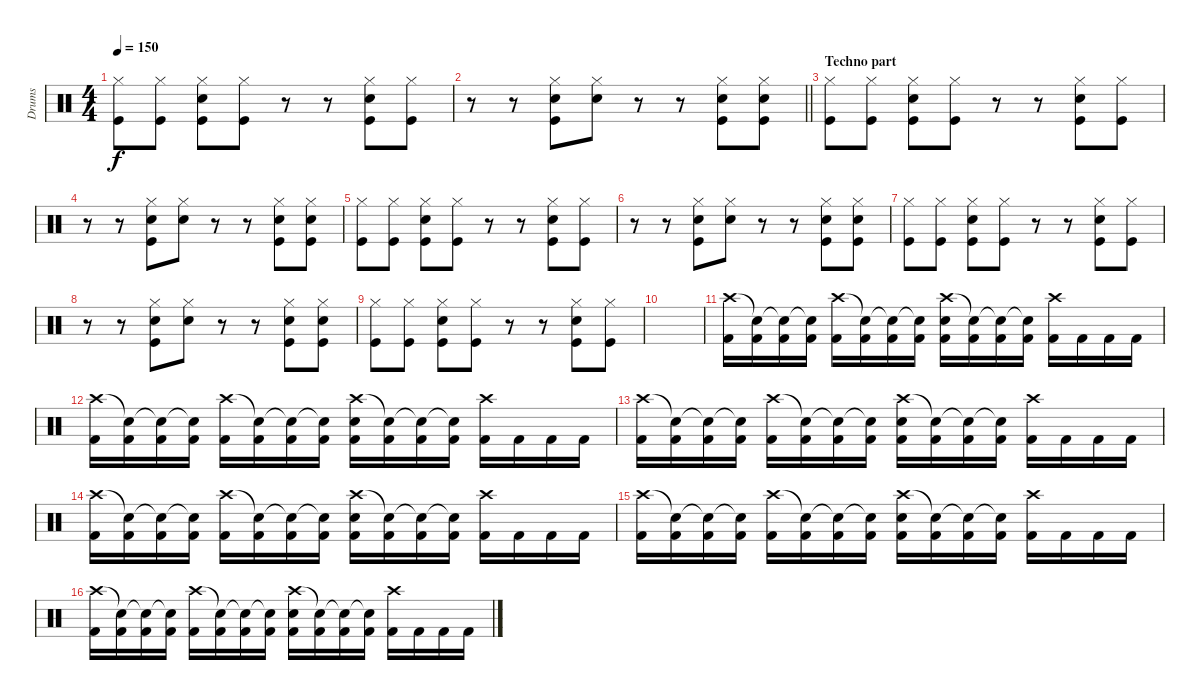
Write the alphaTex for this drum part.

\track ("Drums" "Drums") {instrument percussion}
\staff {score}
\articulation defaults
\ts (4 4)
\tempo 150
\clef neutral
\ks c
("Hi-Hat (closed)" "Kick (hit)").8{dy f} ("Hi-Hat (closed)" "Kick (hit)").8 ("Hi-Hat (closed)" "Hand Clap (hit)" "Kick (hit)").8 ("Hi-Hat (closed)" "Kick (hit)").8 r.8 r.8 ("Hi-Hat (closed)" "Hand Clap (hit)" "Kick (hit)").8 ("Hi-Hat (closed)" "Kick (hit)").8 |
\barLineRight lightlight
r.8 r.8 ("Hi-Hat (closed)" "Hand Clap (hit)" "Kick (hit)").8 ("Hi-Hat (closed)" "Hand Clap (hit)").8 r.8 r.8 ("Hi-Hat (closed)" "Hand Clap (hit)" "Kick (hit)").8 ("Hi-Hat (closed)" "Hand Clap (hit)" "Kick (hit)").8 |
\section ("" "Techno part")
("Hi-Hat (closed)" "Kick (hit)").8 ("Hi-Hat (closed)" "Kick (hit)").8 ("Hi-Hat (closed)" "Hand Clap (hit)" "Kick (hit)").8 ("Hi-Hat (closed)" "Kick (hit)").8 r.8 r.8 ("Hi-Hat (closed)" "Hand Clap (hit)" "Kick (hit)").8 ("Hi-Hat (closed)" "Kick (hit)").8 |
r.8 r.8 ("Hi-Hat (closed)" "Hand Clap (hit)" "Kick (hit)").8 ("Hi-Hat (closed)" "Hand Clap (hit)").8 r.8 r.8 ("Hi-Hat (closed)" "Hand Clap (hit)" "Kick (hit)").8 ("Hi-Hat (closed)" "Hand Clap (hit)" "Kick (hit)").8 |
("Hi-Hat (closed)" "Kick (hit)").8 ("Hi-Hat (closed)" "Kick (hit)").8 ("Hi-Hat (closed)" "Hand Clap (hit)" "Kick (hit)").8 ("Hi-Hat (closed)" "Kick (hit)").8 r.8 r.8 ("Hi-Hat (closed)" "Hand Clap (hit)" "Kick (hit)").8 ("Hi-Hat (closed)" "Kick (hit)").8 |
r.8 r.8 ("Hi-Hat (closed)" "Hand Clap (hit)" "Kick (hit)").8 ("Hi-Hat (closed)" "Hand Clap (hit)").8 r.8 r.8 ("Hi-Hat (closed)" "Hand Clap (hit)" "Kick (hit)").8 ("Hi-Hat (closed)" "Hand Clap (hit)" "Kick (hit)").8 |
("Hi-Hat (closed)" "Kick (hit)").8 ("Hi-Hat (closed)" "Kick (hit)").8 ("Hi-Hat (closed)" "Hand Clap (hit)" "Kick (hit)").8 ("Hi-Hat (closed)" "Kick (hit)").8 r.8 r.8 ("Hi-Hat (closed)" "Hand Clap (hit)" "Kick (hit)").8 ("Hi-Hat (closed)" "Kick (hit)").8 |
r.8 r.8 ("Hi-Hat (closed)" "Hand Clap (hit)" "Kick (hit)").8 ("Hi-Hat (closed)" "Hand Clap (hit)").8 r.8 r.8 ("Hi-Hat (closed)" "Hand Clap (hit)" "Kick (hit)").8 ("Hi-Hat (closed)" "Hand Clap (hit)" "Kick (hit)").8 |
("Hi-Hat (closed)" "Kick (hit)").8 ("Hi-Hat (closed)" "Kick (hit)").8 ("Hi-Hat (closed)" "Hand Clap (hit)" "Kick (hit)").8 ("Hi-Hat (closed)" "Kick (hit)").8 r.8 r.8 ("Hi-Hat (closed)" "Hand Clap (hit)" "Kick (hit)").8 ("Hi-Hat (closed)" "Kick (hit)").8 |
|
("Crash high (hit)" "Kick (hit) 2").16 ("Snare (hit)"{t} "Kick (hit) 2").16 ("Snare (hit)"{t} "Kick (hit) 2").16 ("Snare (hit)"{t} "Kick (hit) 2").16 ("Crash high (hit)" "Kick (hit) 2").16 ("Snare (hit)"{t} "Kick (hit) 2").16 ("Snare (hit)"{t} "Kick (hit) 2").16 ("Snare (hit)"{t} "Kick (hit) 2").16 ("Crash high (hit)" "Electric Snare (hit)" "Kick (hit) 2").16 ("Snare (hit)"{t} "Kick (hit) 2").16 ("Snare (hit)"{t} "Kick (hit) 2").16 ("Snare (hit)"{t} "Kick (hit) 2").16 ("Crash high (hit)" "Kick (hit) 2").16 "Kick (hit) 2".16 "Kick (hit) 2".16 "Kick (hit) 2".16 |
("Crash high (hit)" "Kick (hit) 2").16 ("Snare (hit)"{t} "Kick (hit) 2").16 ("Snare (hit)"{t} "Kick (hit) 2").16 ("Snare (hit)"{t} "Kick (hit) 2").16 ("Crash high (hit)" "Kick (hit) 2").16 ("Snare (hit)"{t} "Kick (hit) 2").16 ("Snare (hit)"{t} "Kick (hit) 2").16 ("Snare (hit)"{t} "Kick (hit) 2").16 ("Crash high (hit)" "Electric Snare (hit)" "Kick (hit) 2").16 ("Snare (hit)"{t} "Kick (hit) 2").16 ("Snare (hit)"{t} "Kick (hit) 2").16 ("Snare (hit)"{t} "Kick (hit) 2").16 ("Crash high (hit)" "Kick (hit) 2").16 "Kick (hit) 2".16 "Kick (hit) 2".16 "Kick (hit) 2".16 |
("Crash high (hit)" "Kick (hit) 2").16 ("Snare (hit)"{t} "Kick (hit) 2").16 ("Snare (hit)"{t} "Kick (hit) 2").16 ("Snare (hit)"{t} "Kick (hit) 2").16 ("Crash high (hit)" "Kick (hit) 2").16 ("Snare (hit)"{t} "Kick (hit) 2").16 ("Snare (hit)"{t} "Kick (hit) 2").16 ("Snare (hit)"{t} "Kick (hit) 2").16 ("Crash high (hit)" "Electric Snare (hit)" "Kick (hit) 2").16 ("Snare (hit)"{t} "Kick (hit) 2").16 ("Snare (hit)"{t} "Kick (hit) 2").16 ("Snare (hit)"{t} "Kick (hit) 2").16 ("Crash high (hit)" "Kick (hit) 2").16 "Kick (hit) 2".16 "Kick (hit) 2".16 "Kick (hit) 2".16 |
("Crash high (hit)" "Kick (hit) 2").16 ("Snare (hit)"{t} "Kick (hit) 2").16 ("Snare (hit)"{t} "Kick (hit) 2").16 ("Snare (hit)"{t} "Kick (hit) 2").16 ("Crash high (hit)" "Kick (hit) 2").16 ("Snare (hit)"{t} "Kick (hit) 2").16 ("Snare (hit)"{t} "Kick (hit) 2").16 ("Snare (hit)"{t} "Kick (hit) 2").16 ("Crash high (hit)" "Electric Snare (hit)" "Kick (hit) 2").16 ("Snare (hit)"{t} "Kick (hit) 2").16 ("Snare (hit)"{t} "Kick (hit) 2").16 ("Snare (hit)"{t} "Kick (hit) 2").16 ("Crash high (hit)" "Kick (hit) 2").16 "Kick (hit) 2".16 "Kick (hit) 2".16 "Kick (hit) 2".16 |
("Crash high (hit)" "Kick (hit) 2").16 ("Snare (hit)"{t} "Kick (hit) 2").16 ("Snare (hit)"{t} "Kick (hit) 2").16 ("Snare (hit)"{t} "Kick (hit) 2").16 ("Crash high (hit)" "Kick (hit) 2").16 ("Snare (hit)"{t} "Kick (hit) 2").16 ("Snare (hit)"{t} "Kick (hit) 2").16 ("Snare (hit)"{t} "Kick (hit) 2").16 ("Crash high (hit)" "Electric Snare (hit)" "Kick (hit) 2").16 ("Snare (hit)"{t} "Kick (hit) 2").16 ("Snare (hit)"{t} "Kick (hit) 2").16 ("Snare (hit)"{t} "Kick (hit) 2").16 ("Crash high (hit)" "Kick (hit) 2").16 "Kick (hit) 2".16 "Kick (hit) 2".16 "Kick (hit) 2".16 |
("Crash high (hit)" "Kick (hit) 2").16 ("Snare (hit)"{t} "Kick (hit) 2").16 ("Snare (hit)"{t} "Kick (hit) 2").16 ("Snare (hit)"{t} "Kick (hit) 2").16 ("Crash high (hit)" "Kick (hit) 2").16 ("Snare (hit)"{t} "Kick (hit) 2").16 ("Snare (hit)"{t} "Kick (hit) 2").16 ("Snare (hit)"{t} "Kick (hit) 2").16 ("Crash high (hit)" "Electric Snare (hit)" "Kick (hit) 2").16 ("Snare (hit)"{t} "Kick (hit) 2").16 ("Snare (hit)"{t} "Kick (hit) 2").16 ("Snare (hit)"{t} "Kick (hit) 2").16 ("Crash high (hit)" "Kick (hit) 2").16 "Kick (hit) 2".16 "Kick (hit) 2".16 "Kick (hit) 2".16
